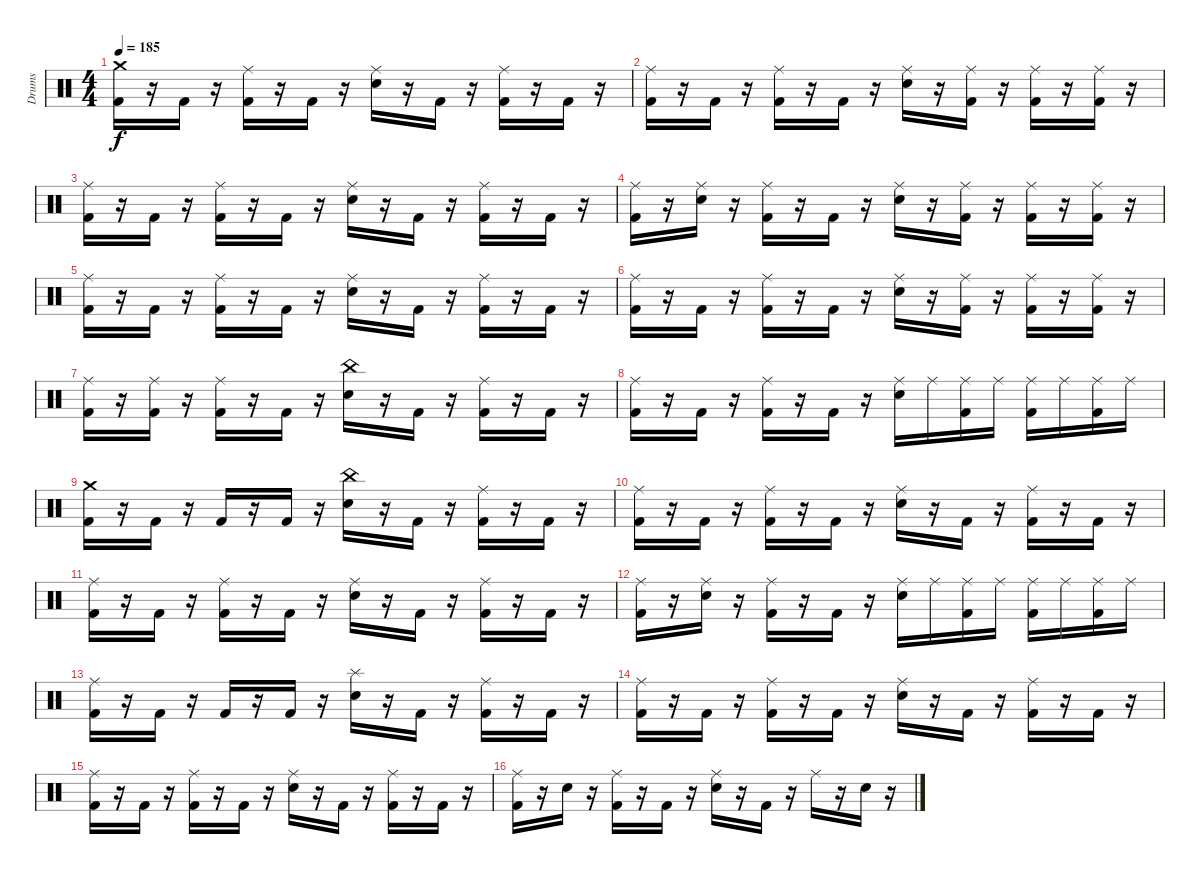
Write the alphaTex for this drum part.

\track ("Drums" "Drums") {instrument percussion}
\staff {score}
\articulation defaults
\ts (4 4)
\tempo 185
\clef neutral
\ks c
("Crash medium (hit)" "Kick (hit) 2").16{dy f} r.16 "Kick (hit) 2".16 r.16 ("Ride (middle)" "Kick (hit) 2").16 r.16 "Kick (hit) 2".16 r.16 ("Snare (hit) 2" "Ride (middle)").16 r.16 "Kick (hit) 2".16 r.16 ("Ride (middle)" "Kick (hit) 2").16 r.16 "Kick (hit) 2".16 r.16 |
("Ride (middle)" "Kick (hit) 2").16 r.16 "Kick (hit) 2".16 r.16 ("Ride (middle)" "Kick (hit) 2").16 r.16 "Kick (hit) 2".16 r.16 ("Snare (hit) 2" "Ride (middle)").16 r.16 ("Ride (middle)" "Kick (hit) 2").16 r.16 ("Ride (middle)" "Kick (hit) 2").16 r.16 ("Ride (middle)" "Kick (hit) 2").16 r.16 |
("Ride (middle)" "Kick (hit) 2").16 r.16 "Kick (hit) 2".16 r.16 ("Ride (middle)" "Kick (hit) 2").16 r.16 "Kick (hit) 2".16 r.16 ("Snare (hit) 2" "Ride (middle)").16 r.16 "Kick (hit) 2".16 r.16 ("Ride (middle)" "Kick (hit) 2").16 r.16 "Kick (hit) 2".16 r.16 |
("Ride (middle)" "Kick (hit) 2").16 r.16 ("Snare (hit) 2" "Ride (middle)").16 r.16 ("Ride (middle)" "Kick (hit) 2").16 r.16 "Kick (hit) 2".16 r.16 ("Snare (hit) 2" "Ride (middle)").16 r.16 ("Ride (middle)" "Kick (hit) 2").16 r.16 ("Ride (middle)" "Kick (hit) 2").16 r.16 ("Ride (middle)" "Kick (hit) 2").16 r.16 |
("Ride (middle)" "Kick (hit) 2").16 r.16 "Kick (hit) 2".16 r.16 ("Ride (middle)" "Kick (hit) 2").16 r.16 "Kick (hit) 2".16 r.16 ("Snare (hit) 2" "Ride (middle)").16 r.16 "Kick (hit) 2".16 r.16 ("Ride (middle)" "Kick (hit) 2").16 r.16 "Kick (hit) 2".16 r.16 |
("Ride (middle)" "Kick (hit) 2").16 r.16 "Kick (hit) 2".16 r.16 ("Ride (middle)" "Kick (hit) 2").16 r.16 "Kick (hit) 2".16 r.16 ("Snare (hit) 2" "Ride (middle)").16 r.16 ("Ride (middle)" "Kick (hit) 2").16 r.16 ("Ride (middle)" "Kick (hit) 2").16 r.16 ("Ride (middle)" "Kick (hit) 2").16 r.16 |
("Ride (middle)" "Kick (hit) 2").16 r.16 ("Ride (middle)" "Kick (hit) 2").16 r.16 ("Ride (middle)" "Kick (hit) 2").16 r.16 "Kick (hit) 2".16 r.16 ("China (hit)" "Snare (hit) 2").16 r.16 "Kick (hit) 2".16 r.16 ("Ride (middle)" "Kick (hit) 2").16 r.16 "Kick (hit) 2".16 r.16 |
("Ride (middle)" "Kick (hit) 2").16 r.16 "Kick (hit) 2".16 r.16 ("Ride (middle)" "Kick (hit) 2").16 r.16 "Kick (hit) 2".16 r.16 ("Snare (hit) 2" "Ride (middle)").16 "Ride (middle)".16 ("Ride (middle)" "Kick (hit) 2").16 "Ride (middle)".16 ("Ride (middle)" "Kick (hit) 2").16 "Ride (middle)".16 ("Ride (middle)" "Kick (hit) 2").16 "Ride (middle)".16 |
("Crash medium (hit)" "Kick (hit) 2").16 r.16 "Kick (hit) 2".16 r.16 "Kick (hit) 2".16 r.16 "Kick (hit) 2".16 r.16 ("China (hit)" "Snare (hit) 2").16 r.16 "Kick (hit) 2".16 r.16 ("Ride (middle)" "Kick (hit) 2").16 r.16 "Kick (hit) 2".16 r.16 |
("Ride (middle)" "Kick (hit) 2").16 r.16 "Kick (hit) 2".16 r.16 ("Ride (middle)" "Kick (hit) 2").16 r.16 "Kick (hit) 2".16 r.16 ("Snare (hit) 2" "Ride (middle)").16 r.16 "Kick (hit) 2".16 r.16 ("Ride (middle)" "Kick (hit) 2").16 r.16 "Kick (hit) 2".16 r.16 |
("Ride (middle)" "Kick (hit) 2").16 r.16 "Kick (hit) 2".16 r.16 ("Ride (middle)" "Kick (hit) 2").16 r.16 "Kick (hit) 2".16 r.16 ("Snare (hit) 2" "Ride (middle)").16 r.16 "Kick (hit) 2".16 r.16 ("Ride (middle)" "Kick (hit) 2").16 r.16 "Kick (hit) 2".16 r.16 |
("Ride (middle)" "Kick (hit) 2").16 r.16 ("Snare (hit) 2" "Ride (middle)").16 r.16 ("Ride (middle)" "Kick (hit) 2").16 r.16 "Kick (hit) 2".16 r.16 ("Snare (hit) 2" "Ride (middle)").16 "Ride (middle)".16 ("Ride (middle)" "Kick (hit) 2").16 "Ride (middle)".16 ("Ride (middle)" "Kick (hit) 2").16 "Ride (middle)".16 ("Ride (middle)" "Kick (hit) 2").16 "Ride (middle)".16 |
("Ride (middle)" "Kick (hit) 2").16 r.16 "Kick (hit) 2".16 r.16 "Kick (hit) 2".16 r.16 "Kick (hit) 2".16 r.16 ("Splash (hit)" "Snare (hit) 2").16 r.16 "Kick (hit) 2".16 r.16 ("Ride (middle)" "Kick (hit) 2").16 r.16 "Kick (hit) 2".16 r.16 |
("Ride (middle)" "Kick (hit) 2").16 r.16 "Kick (hit) 2".16 r.16 ("Ride (middle)" "Kick (hit) 2").16 r.16 "Kick (hit) 2".16 r.16 ("Snare (hit) 2" "Ride (middle)").16 r.16 "Kick (hit) 2".16 r.16 ("Ride (middle)" "Kick (hit) 2").16 r.16 "Kick (hit) 2".16 r.16 |
("Ride (middle)" "Kick (hit) 2").16 r.16 "Kick (hit) 2".16 r.16 ("Ride (middle)" "Kick (hit) 2").16 r.16 "Kick (hit) 2".16 r.16 ("Snare (hit) 2" "Ride (middle)").16 r.16 "Kick (hit) 2".16 r.16 ("Ride (middle)" "Kick (hit) 2").16 r.16 "Kick (hit) 2".16 r.16 |
("Ride (middle)" "Kick (hit) 2").16 r.16 "Snare (hit) 2".16 r.16 ("Ride (middle)" "Kick (hit) 2").16 r.16 "Kick (hit) 2".16 r.16 ("Snare (hit) 2" "Ride (middle)").16 r.16 "Kick (hit) 2".16 r.16 "Ride (middle)".16 r.16 "Snare (hit) 2".16 r.16
